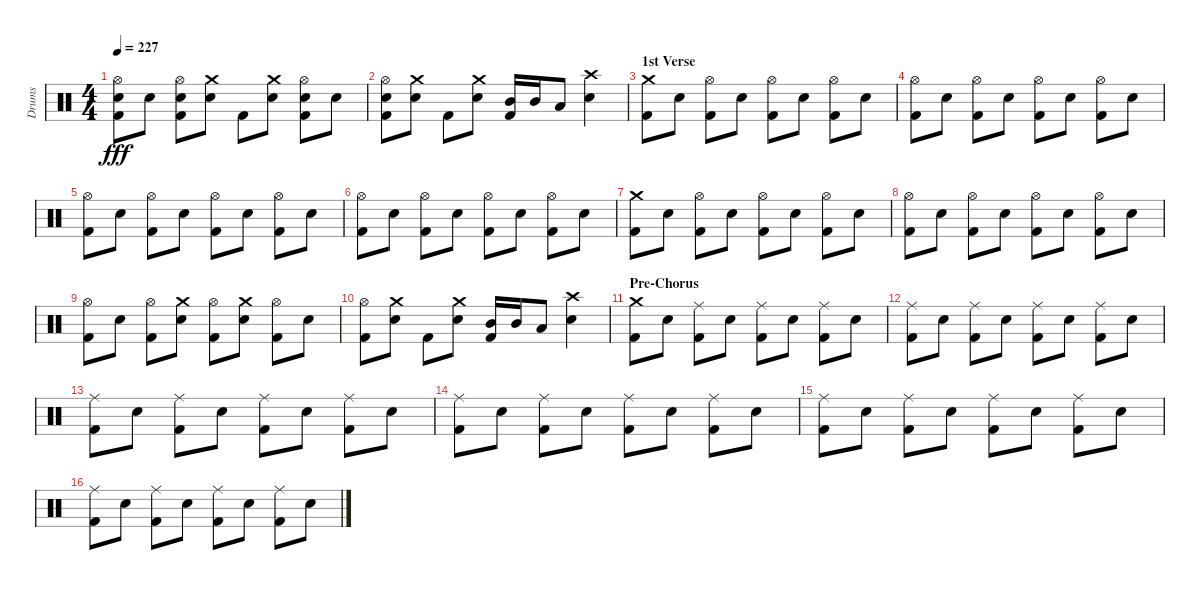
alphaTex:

\track ("Drums" "Drums") {instrument percussion}
\staff {score}
\articulation defaults
\ts (4 4)
\tempo 227
\clef neutral
\ks c
("Kick (hit) 2" "Electric Snare (hit)" "Hi-Hat (open)").8{dy fff} "Electric Snare (hit)".8 ("Kick (hit) 2" "Electric Snare (hit)" "Hi-Hat (open)").8 ("Electric Snare (hit)" "Crash medium (hit)").8 "Kick (hit) 2".8 ("Electric Snare (hit)" "Crash medium (hit)").8 ("Kick (hit) 2" "Electric Snare (hit)" "Hi-Hat (open)").8 "Electric Snare (hit)".8 |
("Kick (hit) 2" "Electric Snare (hit)" "Hi-Hat (open)").8 ("Electric Snare (hit)" "Crash medium (hit)").8 "Kick (hit) 2".8 ("Electric Snare (hit)" "Crash medium (hit)").8 ("Kick (hit) 2" "Mid Tom (hit)").16 "Mid Tom (hit)".16 "Low Tom (hit)".8 ("Electric Snare (hit)" "Crash high (hit)").4 |
\section ("" "1st Verse")
("Kick (hit) 2" "Crash medium (hit)").8 "Electric Snare (hit)".8 ("Kick (hit) 2" "Hi-Hat (open)").8 "Electric Snare (hit)".8 ("Kick (hit) 2" "Hi-Hat (open)").8 "Electric Snare (hit)".8 ("Kick (hit) 2" "Hi-Hat (open)").8 "Electric Snare (hit)".8 |
("Kick (hit) 2" "Hi-Hat (open)").8 "Electric Snare (hit)".8 ("Kick (hit) 2" "Hi-Hat (open)").8 "Electric Snare (hit)".8 ("Kick (hit) 2" "Hi-Hat (open)").8 "Electric Snare (hit)".8 ("Kick (hit) 2" "Hi-Hat (open)").8 "Electric Snare (hit)".8 |
("Kick (hit) 2" "Hi-Hat (open)").8 "Electric Snare (hit)".8 ("Kick (hit) 2" "Hi-Hat (open)").8 "Electric Snare (hit)".8 ("Kick (hit) 2" "Hi-Hat (open)").8 "Electric Snare (hit)".8 ("Kick (hit) 2" "Hi-Hat (open)").8 "Electric Snare (hit)".8 |
("Kick (hit) 2" "Hi-Hat (open)").8 "Electric Snare (hit)".8 ("Kick (hit) 2" "Hi-Hat (open)").8 "Electric Snare (hit)".8 ("Kick (hit) 2" "Hi-Hat (open)").8 "Electric Snare (hit)".8 ("Kick (hit) 2" "Hi-Hat (open)").8 "Electric Snare (hit)".8 |
("Kick (hit) 2" "Crash medium (hit)").8 "Electric Snare (hit)".8 ("Kick (hit) 2" "Hi-Hat (open)").8 "Electric Snare (hit)".8 ("Kick (hit) 2" "Hi-Hat (open)").8 "Electric Snare (hit)".8 ("Kick (hit) 2" "Hi-Hat (open)").8 "Electric Snare (hit)".8 |
("Kick (hit) 2" "Hi-Hat (open)").8 "Electric Snare (hit)".8 ("Kick (hit) 2" "Hi-Hat (open)").8 "Electric Snare (hit)".8 ("Kick (hit) 2" "Hi-Hat (open)").8 "Electric Snare (hit)".8 ("Kick (hit) 2" "Hi-Hat (open)").8 "Electric Snare (hit)".8 |
("Kick (hit) 2" "Hi-Hat (open)").8 "Electric Snare (hit)".8 ("Kick (hit) 2" "Hi-Hat (open)").8 ("Electric Snare (hit)" "Crash medium (hit)").8 ("Kick (hit) 2" "Hi-Hat (open)").8 ("Electric Snare (hit)" "Crash medium (hit)").8 ("Kick (hit) 2" "Hi-Hat (open)").8 "Electric Snare (hit)".8 |
("Kick (hit) 2" "Hi-Hat (open)").8 ("Electric Snare (hit)" "Crash medium (hit)").8 "Kick (hit) 2".8 ("Electric Snare (hit)" "Crash medium (hit)").8 ("Kick (hit) 2" "Mid Tom (hit)").16 "Mid Tom (hit)".16 "Low Tom (hit)".8 ("Electric Snare (hit)" "Crash high (hit)").4 |
\section ("" "Pre-Chorus")
("Kick (hit) 2" "Crash medium (hit)").8 "Electric Snare (hit)".8 ("Kick (hit) 2" "Ride (middle)").8 "Electric Snare (hit)".8 ("Kick (hit) 2" "Ride (middle)").8 "Electric Snare (hit)".8 ("Kick (hit) 2" "Ride (middle)").8 "Electric Snare (hit)".8 |
("Kick (hit) 2" "Ride (middle)").8 "Electric Snare (hit)".8 ("Kick (hit) 2" "Ride (middle)").8 "Electric Snare (hit)".8 ("Kick (hit) 2" "Ride (middle)").8 "Electric Snare (hit)".8 ("Kick (hit) 2" "Ride (middle)").8 "Electric Snare (hit)".8 |
("Kick (hit) 2" "Ride (middle)").8 "Electric Snare (hit)".8 ("Kick (hit) 2" "Ride (middle)").8 "Electric Snare (hit)".8 ("Kick (hit) 2" "Ride (middle)").8 "Electric Snare (hit)".8 ("Kick (hit) 2" "Ride (middle)").8 "Electric Snare (hit)".8 |
("Kick (hit) 2" "Ride (middle)").8 "Electric Snare (hit)".8 ("Kick (hit) 2" "Ride (middle)").8 "Electric Snare (hit)".8 ("Kick (hit) 2" "Ride (middle)").8 "Electric Snare (hit)".8 ("Kick (hit) 2" "Ride (middle)").8 "Electric Snare (hit)".8 |
("Kick (hit) 2" "Ride (middle)").8 "Electric Snare (hit)".8 ("Kick (hit) 2" "Ride (middle)").8 "Electric Snare (hit)".8 ("Kick (hit) 2" "Ride (middle)").8 "Electric Snare (hit)".8 ("Kick (hit) 2" "Ride (middle)").8 "Electric Snare (hit)".8 |
("Kick (hit) 2" "Ride (middle)").8 "Electric Snare (hit)".8 ("Kick (hit) 2" "Ride (middle)").8 "Electric Snare (hit)".8 ("Kick (hit) 2" "Ride (middle)").8 "Electric Snare (hit)".8 ("Kick (hit) 2" "Ride (middle)").8 "Electric Snare (hit)".8
